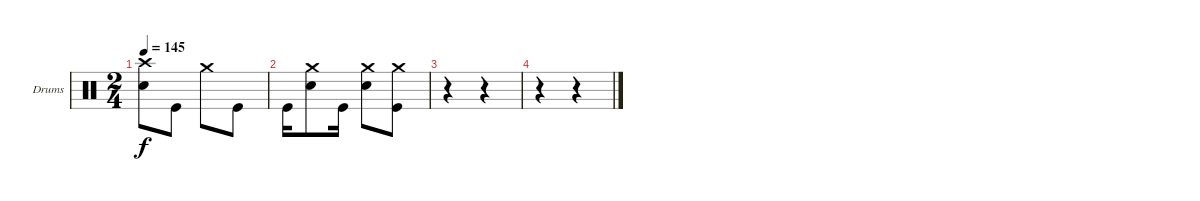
\bracketExtendMode groupsimilarinstruments
\firstSystemTrackNameOrientation horizontal
\otherSystemsTrackNameOrientation horizontal
\track ("Drumkit" "Drums") {instrument percussion}
\staff {score}
\articulation defaults
\ts (2 4)
\tempo 145
\clef neutral
\ks c
("Snare (hit) 2" "Crash high (hit)").8{dy f} "Kick (hit)".8 "Crash medium (hit)".8 "Kick (hit)".8 |
"Kick (hit)".16 ("Snare (hit) 2" "Crash medium (hit)").8 "Kick (hit)".16 ("Snare (hit) 2" "Crash medium (hit)").8 ("Kick (hit)" "Crash medium (hit)").8 |
r.4 r.4 |
r.4 r.4
